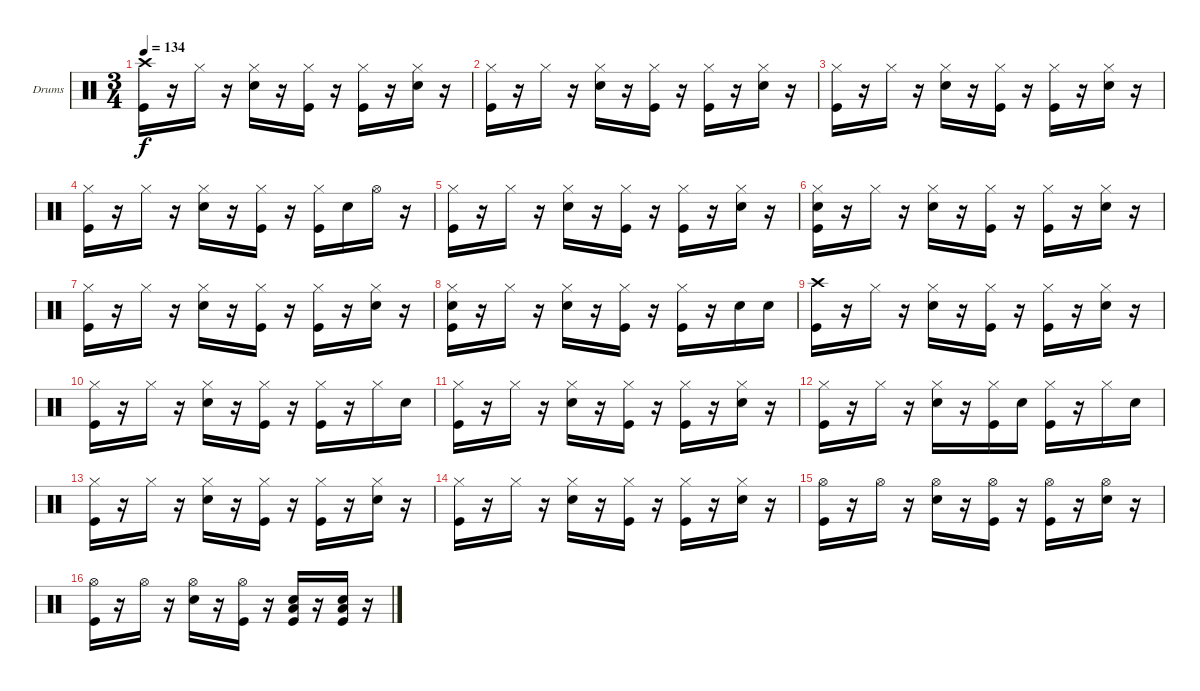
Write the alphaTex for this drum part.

\bracketExtendMode groupsimilarinstruments
\firstSystemTrackNameOrientation horizontal
\otherSystemsTrackNameOrientation horizontal
\track ("Drumkit" "Drums") {instrument percussion}
\staff {score}
\articulation defaults
\ts (3 4)
\tempo 134
\clef neutral
\ks c
("Crash high (hit)" "Kick (hit)").16{dy f} r.16 "Hi-Hat (closed)".16 r.16 ("Hi-Hat (closed)" "Snare (hit) 2").16 r.16 ("Hi-Hat (closed)" "Kick (hit)").16 r.16 ("Hi-Hat (closed)" "Kick (hit)").16 r.16 ("Hi-Hat (closed)" "Snare (hit) 2").16 r.16 |
("Kick (hit)" "Hi-Hat (closed)").16 r.16 "Hi-Hat (closed)".16 r.16 ("Hi-Hat (closed)" "Snare (hit) 2").16 r.16 ("Kick (hit)" "Hi-Hat (closed)").16 r.16 ("Kick (hit)" "Hi-Hat (closed)").16 r.16 ("Snare (hit) 2" "Hi-Hat (closed)").16 r.16 |
("Kick (hit)" "Hi-Hat (closed)").16 r.16 "Hi-Hat (closed)".16 r.16 ("Hi-Hat (closed)" "Snare (hit) 2").16 r.16 ("Kick (hit)" "Hi-Hat (closed)").16 r.16 ("Hi-Hat (closed)" "Kick (hit)").16 r.16 ("Snare (hit) 2" "Hi-Hat (closed)").16 r.16 |
("Kick (hit)" "Hi-Hat (closed)").16 r.16 "Hi-Hat (closed)".16 r.16 ("Snare (hit) 2" "Hi-Hat (closed)").16 r.16 ("Hi-Hat (closed)" "Kick (hit)").16 r.16 ("Hi-Hat (closed)" "Kick (hit)").16 "Snare (hit) 2".16 "Hi-Hat (open)".16 r.16 |
("Kick (hit)" "Hi-Hat (closed)").16 r.16 "Hi-Hat (closed)".16 r.16 ("Hi-Hat (closed)" "Snare (hit) 2").16 r.16 ("Kick (hit)" "Hi-Hat (closed)").16 r.16 ("Hi-Hat (closed)" "Kick (hit)").16 r.16 ("Snare (hit) 2" "Hi-Hat (closed)").16 r.16 |
("Snare (hit) 2" "Hi-Hat (closed)" "Kick (hit)").16 r.16 "Hi-Hat (closed)".16 r.16 ("Snare (hit) 2" "Hi-Hat (closed)").16 r.16 ("Kick (hit)" "Hi-Hat (closed)").16 r.16 ("Hi-Hat (closed)" "Kick (hit)").16 r.16 ("Hi-Hat (closed)" "Snare (hit) 2").16 r.16 |
("Hi-Hat (closed)" "Kick (hit)").16 r.16 "Hi-Hat (closed)".16 r.16 ("Snare (hit) 2" "Hi-Hat (closed)").16 r.16 ("Hi-Hat (closed)" "Kick (hit)").16 r.16 ("Kick (hit)" "Hi-Hat (closed)").16 r.16 ("Hi-Hat (closed)" "Snare (hit) 2").16 r.16 |
("Snare (hit) 2" "Hi-Hat (closed)" "Kick (hit)").16 r.16 "Hi-Hat (closed)".16 r.16 ("Hi-Hat (closed)" "Snare (hit) 2").16 r.16 ("Kick (hit)" "Hi-Hat (closed)").16 r.16 ("Kick (hit)" "Hi-Hat (closed)").16 r.16 "Snare (hit) 2".16 "Snare (hit) 2".16 |
("Kick (hit)" "Crash high (hit)").16 r.16 "Hi-Hat (closed)".16 r.16 ("Hi-Hat (closed)" "Snare (hit) 2").16 r.16 ("Hi-Hat (closed)" "Kick (hit)").16 r.16 ("Hi-Hat (closed)" "Kick (hit)").16 r.16 ("Hi-Hat (closed)" "Snare (hit) 2").16 r.16 |
("Kick (hit)" "Hi-Hat (closed)").16 r.16 "Hi-Hat (closed)".16 r.16 ("Hi-Hat (closed)" "Snare (hit) 2").16 r.16 ("Hi-Hat (closed)" "Kick (hit)").16 r.16 ("Kick (hit)" "Hi-Hat (closed)").16 r.16 "Hi-Hat (closed)".16 "Snare (hit) 2".16 |
("Kick (hit)" "Hi-Hat (closed)").16 r.16 "Hi-Hat (closed)".16 r.16 ("Snare (hit) 2" "Hi-Hat (closed)").16 r.16 ("Hi-Hat (closed)" "Kick (hit)").16 r.16 ("Kick (hit)" "Hi-Hat (closed)").16 r.16 ("Snare (hit) 2" "Hi-Hat (closed)").16 r.16 |
("Hi-Hat (closed)" "Kick (hit)").16 r.16 "Hi-Hat (closed)".16 r.16 ("Snare (hit) 2" "Hi-Hat (closed)").16 r.16 ("Hi-Hat (closed)" "Kick (hit)").16 "Snare (hit) 2".16 ("Hi-Hat (closed)" "Kick (hit)").16 r.16 "Hi-Hat (closed)".16 "Snare (hit) 2".16 |
("Hi-Hat (closed)" "Kick (hit)").16 r.16 "Hi-Hat (closed)".16 r.16 ("Hi-Hat (closed)" "Snare (hit) 2").16 r.16 ("Kick (hit)" "Hi-Hat (closed)").16 r.16 ("Kick (hit)" "Hi-Hat (closed)").16 r.16 ("Snare (hit) 2" "Hi-Hat (closed)").16 r.16 |
("Hi-Hat (closed)" "Kick (hit)").16 r.16 "Hi-Hat (closed)".16 r.16 ("Snare (hit) 2" "Hi-Hat (closed)").16 r.16 ("Hi-Hat (closed)" "Kick (hit)").16 r.16 ("Hi-Hat (closed)" "Kick (hit)").16 r.16 ("Snare (hit) 2" "Hi-Hat (closed)").16 r.16 |
("Hi-Hat (open)" "Kick (hit)").16 r.16 "Hi-Hat (open)".16 r.16 ("Hi-Hat (open)" "Snare (hit) 2").16 r.16 ("Hi-Hat (open)" "Kick (hit)").16 r.16 ("Hi-Hat (open)" "Kick (hit)").16 r.16 ("Hi-Hat (open)" "Snare (hit) 2").16 r.16 |
("Kick (hit)" "Hi-Hat (open)").16 r.16 "Hi-Hat (open)".16 r.16 ("Hi-Hat (open)" "Snare (hit) 2").16 r.16 ("Hi-Hat (open)" "Kick (hit)").16 r.16 ("Low Tom (hit)" "Snare (hit) 2" "Kick (hit)").16 r.16 ("Low Tom (hit)" "Snare (hit) 2" "Kick (hit)").16 r.16
